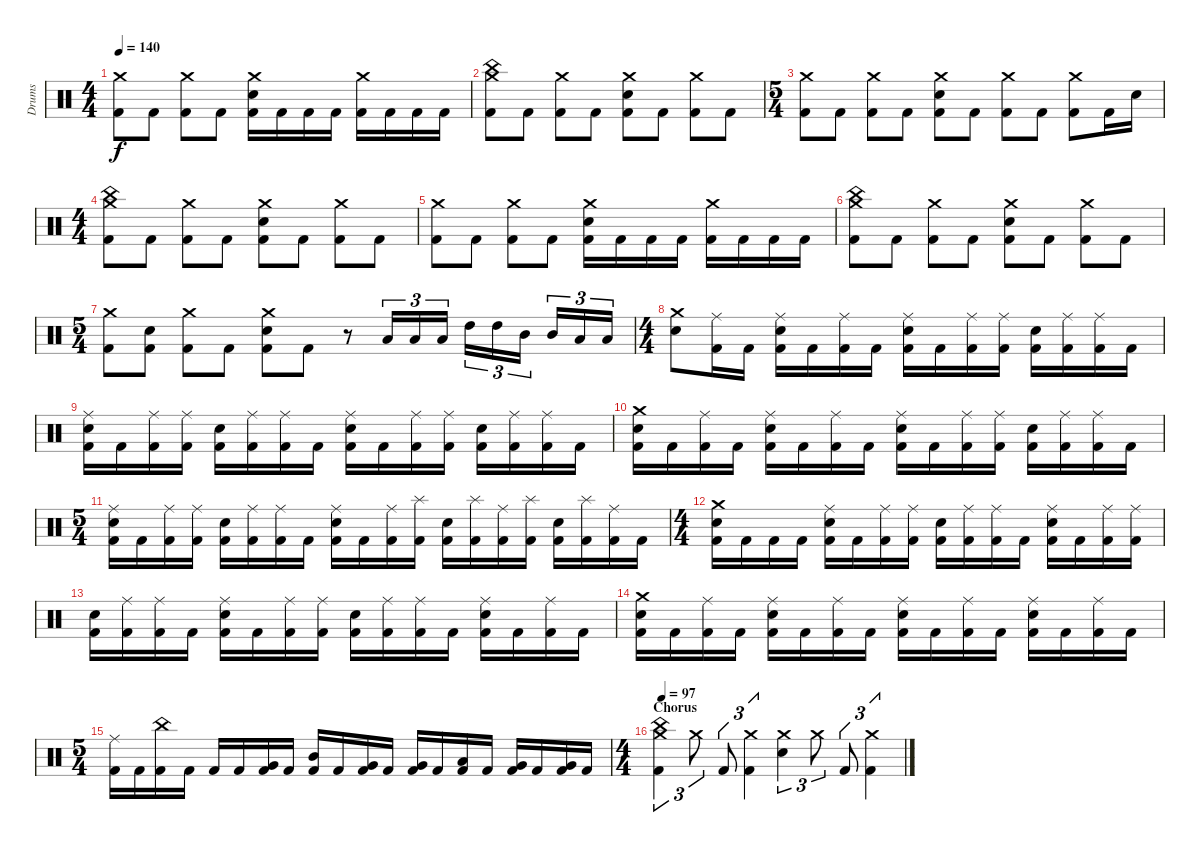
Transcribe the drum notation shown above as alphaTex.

\track ("Drums" "Drums") {instrument percussion}
\staff {score}
\articulation defaults
\ts (4 4)
\tempo 140
\clef neutral
\ks c
("Crash medium (hit)" "Kick (hit) 2").8{dy f} "Kick (hit) 2".8 ("Crash medium (hit)" "Kick (hit) 2").8 "Kick (hit) 2".8 ("Crash medium (hit)" "Snare (hit) 2" "Kick (hit) 2").16 "Kick (hit) 2".16 "Kick (hit) 2".16 "Kick (hit) 2".16 ("Crash medium (hit)" "Kick (hit) 2").16 "Kick (hit) 2".16 "Kick (hit) 2".16 "Kick (hit) 2".16 |
("Crash medium (hit)" "China (hit)" "Kick (hit) 2").8 "Kick (hit) 2".8 ("Crash medium (hit)" "Kick (hit) 2").8 "Kick (hit) 2".8 ("Crash medium (hit)" "Snare (hit) 2" "Kick (hit) 2").8 "Kick (hit) 2".8 ("Crash medium (hit)" "Kick (hit) 2").8 "Kick (hit) 2".8 |
\ts (5 4)
("Crash medium (hit)" "Kick (hit) 2").8 "Kick (hit) 2".8 ("Crash medium (hit)" "Kick (hit) 2").8 "Kick (hit) 2".8 ("Crash medium (hit)" "Snare (hit) 2" "Kick (hit) 2").8 "Kick (hit) 2".8 ("Crash medium (hit)" "Kick (hit) 2").8 "Kick (hit) 2".8 ("Crash medium (hit)" "Kick (hit) 2").8 "Kick (hit) 2".16 "Snare (hit) 2".16 |
\ts (4 4)
("Crash medium (hit)" "China (hit)" "Kick (hit) 2").8 "Kick (hit) 2".8 ("Crash medium (hit)" "Kick (hit) 2").8 "Kick (hit) 2".8 ("Crash medium (hit)" "Snare (hit) 2" "Kick (hit) 2").8 "Kick (hit) 2".8 ("Crash medium (hit)" "Kick (hit) 2").8 "Kick (hit) 2".8 |
("Crash medium (hit)" "Kick (hit) 2").8 "Kick (hit) 2".8 ("Crash medium (hit)" "Kick (hit) 2").8 "Kick (hit) 2".8 ("Crash medium (hit)" "Snare (hit) 2" "Kick (hit) 2").16 "Kick (hit) 2".16 "Kick (hit) 2".16 "Kick (hit) 2".16 ("Crash medium (hit)" "Kick (hit) 2").16 "Kick (hit) 2".16 "Kick (hit) 2".16 "Kick (hit) 2".16 |
("Crash medium (hit)" "China (hit)" "Kick (hit) 2").8 "Kick (hit) 2".8 ("Crash medium (hit)" "Kick (hit) 2").8 "Kick (hit) 2".8 ("Crash medium (hit)" "Snare (hit) 2" "Kick (hit) 2").8 "Kick (hit) 2".8 ("Crash medium (hit)" "Kick (hit) 2").8 "Kick (hit) 2".8 |
\ts (5 4)
("Crash medium (hit)" "Kick (hit) 2").8 ("Snare (hit) 2" "Kick (hit) 2").8 ("Crash medium (hit)" "Kick (hit) 2").8 "Kick (hit) 2".8 ("Crash medium (hit)" "Snare (hit) 2" "Kick (hit) 2").8 "Kick (hit) 2".8 r.8 "Low Tom (hit)".16{tu (3 2)} "Low Tom (hit)".16{tu (3 2)} "Low Tom (hit)".16{tu (3 2)} "High Tom (hit)".16{tu (3 2)} "High Tom (hit)".16{tu (3 2)} "Mid Tom (hit)".16{tu (3 2)} "Mid Tom (hit)".16{tu (3 2)} "Low Tom (hit)".16{tu (3 2)} "Low Tom (hit)".16{tu (3 2)} |
\ts (4 4)
("Crash medium (hit)" "Snare (hit) 2").8 ("Ride (middle)" "Kick (hit) 2").16 "Kick (hit) 2".16 ("Ride (middle)" "Snare (hit) 2" "Kick (hit) 2").16 "Kick (hit) 2".16 ("Ride (middle)" "Kick (hit) 2").16 "Kick (hit) 2".16 ("Ride (middle)" "Snare (hit) 2" "Kick (hit) 2").16 "Kick (hit) 2".16 ("Ride (middle)" "Kick (hit) 2").16 ("Ride (middle)" "Kick (hit) 2").16 ("Snare (hit) 2" "Kick (hit) 2").16 ("Ride (middle)" "Kick (hit) 2").16 ("Ride (middle)" "Kick (hit) 2").16 "Kick (hit) 2".16 |
("Ride (middle)" "Snare (hit) 2" "Kick (hit) 2").16 "Kick (hit) 2".16 ("Ride (middle)" "Kick (hit) 2").16 ("Ride (middle)" "Kick (hit) 2").16 ("Snare (hit) 2" "Kick (hit) 2").16 ("Ride (middle)" "Kick (hit) 2").16 ("Ride (middle)" "Kick (hit) 2").16 "Kick (hit) 2".16 ("Ride (middle)" "Snare (hit) 2" "Kick (hit) 2").16 "Kick (hit) 2".16 ("Ride (middle)" "Kick (hit) 2").16 ("Ride (middle)" "Kick (hit) 2").16 ("Snare (hit) 2" "Kick (hit) 2").16 ("Ride (middle)" "Kick (hit) 2").16 ("Ride (middle)" "Kick (hit) 2").16 "Kick (hit) 2".16 |
("Crash medium (hit)" "Snare (hit) 2" "Kick (hit) 2").16 "Kick (hit) 2".16 ("Ride (middle)" "Kick (hit) 2").16 "Kick (hit) 2".16 ("Ride (middle)" "Snare (hit) 2" "Kick (hit) 2").16 "Kick (hit) 2".16 ("Ride (middle)" "Kick (hit) 2").16 "Kick (hit) 2".16 ("Ride (middle)" "Snare (hit) 2" "Kick (hit) 2").16 "Kick (hit) 2".16 ("Ride (middle)" "Kick (hit) 2").16 ("Ride (middle)" "Kick (hit) 2").16 ("Snare (hit) 2" "Kick (hit) 2").16 ("Ride (middle)" "Kick (hit) 2").16 ("Ride (middle)" "Kick (hit) 2").16 "Kick (hit) 2".16 |
\ts (5 4)
("Ride (middle)" "Snare (hit) 2" "Kick (hit) 2").16 "Kick (hit) 2".16 ("Ride (middle)" "Kick (hit) 2").16 ("Ride (middle)" "Kick (hit) 2").16 ("Snare (hit) 2" "Kick (hit) 2").16 ("Ride (middle)" "Kick (hit) 2").16 ("Ride (middle)" "Kick (hit) 2").16 "Kick (hit) 2".16 ("Ride (middle)" "Snare (hit) 2" "Kick (hit) 2").16 "Kick (hit) 2".16 ("Ride (middle)" "Kick (hit) 2").16 ("Splash (hit)" "Kick (hit) 2").16 ("Snare (hit) 2" "Kick (hit) 2").16 ("Splash (hit)" "Kick (hit) 2").16 ("Ride (middle)" "Kick (hit) 2").16 ("Splash (hit)" "Kick (hit) 2").16 ("Snare (hit) 2" "Kick (hit) 2").16 ("Splash (hit)" "Kick (hit) 2").16 ("Ride (middle)" "Kick (hit) 2").16 "Kick (hit) 2".16 |
\ts (4 4)
("Crash medium (hit)" "Snare (hit) 2" "Kick (hit) 2").16 "Kick (hit) 2".16 "Kick (hit) 2".16 "Kick (hit) 2".16 ("Ride (middle)" "Snare (hit) 2" "Kick (hit) 2").16 "Kick (hit) 2".16 ("Ride (middle)" "Kick (hit) 2").16 ("Ride (middle)" "Kick (hit) 2").16 ("Snare (hit) 2" "Kick (hit) 2").16 ("Ride (middle)" "Kick (hit) 2").16 ("Ride (middle)" "Kick (hit) 2").16 "Kick (hit) 2".16 ("Ride (middle)" "Snare (hit) 2" "Kick (hit) 2").16 "Kick (hit) 2".16 ("Ride (middle)" "Kick (hit) 2").16 ("Ride (middle)" "Kick (hit) 2").16 |
("Snare (hit) 2" "Kick (hit) 2").16 ("Ride (middle)" "Kick (hit) 2").16 ("Ride (middle)" "Kick (hit) 2").16 "Kick (hit) 2".16 ("Ride (middle)" "Snare (hit) 2" "Kick (hit) 2").16 "Kick (hit) 2".16 ("Ride (middle)" "Kick (hit) 2").16 ("Ride (middle)" "Kick (hit) 2").16 ("Snare (hit) 2" "Kick (hit) 2").16 ("Ride (middle)" "Kick (hit) 2").16 ("Ride (middle)" "Kick (hit) 2").16 "Kick (hit) 2".16 ("Ride (middle)" "Snare (hit) 2" "Kick (hit) 2").16 "Kick (hit) 2".16 ("Ride (middle)" "Kick (hit) 2").16 "Kick (hit) 2".16 |
("Crash medium (hit)" "Snare (hit) 2" "Kick (hit) 2").16 "Kick (hit) 2".16 ("Ride (middle)" "Kick (hit) 2").16 "Kick (hit) 2".16 ("Ride (middle)" "Snare (hit) 2" "Kick (hit) 2").16 "Kick (hit) 2".16 ("Ride (middle)" "Kick (hit) 2").16 "Kick (hit) 2".16 ("Ride (middle)" "Snare (hit) 2" "Kick (hit) 2").16 "Kick (hit) 2".16 ("Ride (middle)" "Kick (hit) 2").16 "Kick (hit) 2".16 ("Ride (middle)" "Snare (hit) 2" "Kick (hit) 2").16 "Kick (hit) 2".16 ("Ride (middle)" "Kick (hit) 2").16 "Kick (hit) 2".16 |
\ts (5 4)
("Ride (middle)" "Kick (hit) 2").16 "Kick (hit) 2".16 ("China (hit)" "Kick (hit) 2").16 "Kick (hit) 2".16 "Kick (hit) 2".16 "Kick (hit) 2".16 ("Very Low Tom (hit)" "Kick (hit) 2").16 "Kick (hit) 2".16 ("Mid Tom (hit)" "Kick (hit) 2").16 "Kick (hit) 2".16 ("Very Low Tom (hit)" "Kick (hit) 2").16 "Kick (hit) 2".16 ("Very Low Tom (hit)" "Kick (hit) 2").16 "Kick (hit) 2".16 ("Low Tom (hit)" "Kick (hit) 2").16 "Kick (hit) 2".16 ("Very Low Tom (hit)" "Kick (hit) 2").16 "Kick (hit) 2".16 ("Very Low Tom (hit)" "Kick (hit) 2").16 "Kick (hit) 2".16 |
\ts (4 4)
\section ("" "Chorus")
\tempo 97
("Crash medium (hit)" "China (hit)" "Kick (hit) 2").4{tu (3 2)} "Crash medium (hit)".8{tu (3 2)} "Kick (hit) 2".8{tu (3 2)} ("Crash medium (hit)" "Kick (hit) 2").4{tu (3 2)} ("Crash medium (hit)" "Snare (hit) 2").4{tu (3 2)} "Crash medium (hit)".8{tu (3 2)} "Kick (hit) 2".8{tu (3 2)} ("Crash medium (hit)" "Kick (hit) 2").4{tu (3 2)}
